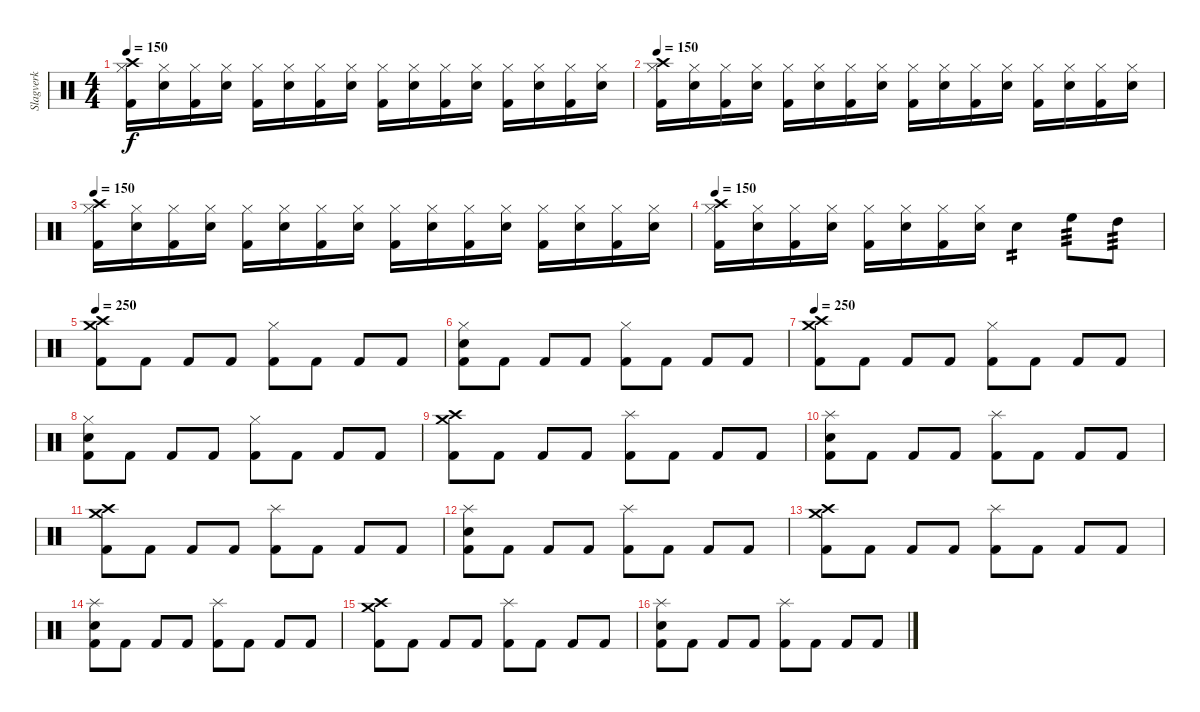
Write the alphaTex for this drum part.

\track ("Slagverk" "Slagverk") {instrument percussion}
\staff {score}
\articulation defaults
\ts (4 4)
\tempo 135
\tempo 150
\clef neutral
\ks c
("Crash high (hit)" "Hi-Hat (closed)" "Kick (hit) 2").16{dy f} ("Electric Snare (hit)" "Hi-Hat (closed)").16 ("Hi-Hat (closed)" "Kick (hit) 2").16 ("Electric Snare (hit)" "Hi-Hat (closed)").16 ("Hi-Hat (closed)" "Kick (hit) 2").16 ("Electric Snare (hit)" "Hi-Hat (closed)").16 ("Hi-Hat (closed)" "Kick (hit) 2").16 ("Electric Snare (hit)" "Hi-Hat (closed)").16 ("Hi-Hat (closed)" "Kick (hit) 2").16 ("Electric Snare (hit)" "Hi-Hat (closed)").16 ("Hi-Hat (closed)" "Kick (hit) 2").16 ("Electric Snare (hit)" "Hi-Hat (closed)").16 ("Hi-Hat (closed)" "Kick (hit) 2").16 ("Electric Snare (hit)" "Hi-Hat (closed)").16 ("Hi-Hat (closed)" "Kick (hit) 2").16 ("Electric Snare (hit)" "Hi-Hat (closed)").16 |
\tempo 135
\tempo 150
("Crash high (hit)" "Hi-Hat (closed)" "Kick (hit) 2").16 ("Electric Snare (hit)" "Hi-Hat (closed)").16 ("Hi-Hat (closed)" "Kick (hit) 2").16 ("Electric Snare (hit)" "Hi-Hat (closed)").16 ("Hi-Hat (closed)" "Kick (hit) 2").16 ("Electric Snare (hit)" "Hi-Hat (closed)").16 ("Hi-Hat (closed)" "Kick (hit) 2").16 ("Electric Snare (hit)" "Hi-Hat (closed)").16 ("Hi-Hat (closed)" "Kick (hit) 2").16 ("Electric Snare (hit)" "Hi-Hat (closed)").16 ("Hi-Hat (closed)" "Kick (hit) 2").16 ("Electric Snare (hit)" "Hi-Hat (closed)").16 ("Hi-Hat (closed)" "Kick (hit) 2").16 ("Electric Snare (hit)" "Hi-Hat (closed)").16 ("Hi-Hat (closed)" "Kick (hit) 2").16 ("Electric Snare (hit)" "Hi-Hat (closed)").16 |
\tempo 135
\tempo 150
("Crash high (hit)" "Hi-Hat (closed)" "Kick (hit) 2").16 ("Electric Snare (hit)" "Hi-Hat (closed)").16 ("Hi-Hat (closed)" "Kick (hit) 2").16 ("Electric Snare (hit)" "Hi-Hat (closed)").16 ("Hi-Hat (closed)" "Kick (hit) 2").16 ("Electric Snare (hit)" "Hi-Hat (closed)").16 ("Hi-Hat (closed)" "Kick (hit) 2").16 ("Electric Snare (hit)" "Hi-Hat (closed)").16 ("Hi-Hat (closed)" "Kick (hit) 2").16 ("Electric Snare (hit)" "Hi-Hat (closed)").16 ("Hi-Hat (closed)" "Kick (hit) 2").16 ("Electric Snare (hit)" "Hi-Hat (closed)").16 ("Hi-Hat (closed)" "Kick (hit) 2").16 ("Electric Snare (hit)" "Hi-Hat (closed)").16 ("Hi-Hat (closed)" "Kick (hit) 2").16 ("Electric Snare (hit)" "Hi-Hat (closed)").16 |
\tempo 135
\tempo 150
("Crash high (hit)" "Hi-Hat (closed)" "Kick (hit) 2").16 ("Electric Snare (hit)" "Hi-Hat (closed)").16 ("Hi-Hat (closed)" "Kick (hit) 2").16 ("Electric Snare (hit)" "Hi-Hat (closed)").16 ("Hi-Hat (closed)" "Kick (hit) 2").16 ("Electric Snare (hit)" "Hi-Hat (closed)").16 ("Hi-Hat (closed)" "Kick (hit) 2").16 ("Electric Snare (hit)" "Hi-Hat (closed)").16 "Electric Snare (hit)".4{tp 2} "High Floor Tom (hit)".8{tp 3} "High Tom (hit)".8{tp 3} |
\tempo 250
("Crash medium (hit)" "Crash high (hit)" "Kick (hit) 2").8 "Kick (hit) 2".8 "Kick (hit) 2".8 "Kick (hit) 2".8 ("Hi-Hat (closed)" "Kick (hit) 2").8 "Kick (hit) 2".8 "Kick (hit) 2".8 "Kick (hit) 2".8 |
("Electric Snare (hit)" "Hi-Hat (closed)" "Kick (hit) 2").8 "Kick (hit) 2".8 "Kick (hit) 2".8 "Kick (hit) 2".8 ("Hi-Hat (closed)" "Kick (hit) 2").8 "Kick (hit) 2".8 "Kick (hit) 2".8 "Kick (hit) 2".8 |
\tempo 250
("Crash medium (hit)" "Crash high (hit)" "Kick (hit) 2").8 "Kick (hit) 2".8 "Kick (hit) 2".8 "Kick (hit) 2".8 ("Hi-Hat (closed)" "Kick (hit) 2").8 "Kick (hit) 2".8 "Kick (hit) 2".8 "Kick (hit) 2".8 |
("Electric Snare (hit)" "Hi-Hat (closed)" "Kick (hit) 2").8 "Kick (hit) 2".8 "Kick (hit) 2".8 "Kick (hit) 2".8 ("Hi-Hat (closed)" "Kick (hit) 2").8 "Kick (hit) 2".8 "Kick (hit) 2".8 "Kick (hit) 2".8 |
("Crash medium (hit)" "Crash high (hit)" "Kick (hit) 2").8 "Kick (hit) 2".8 "Kick (hit) 2".8 "Kick (hit) 2".8 ("Splash (hit)" "Kick (hit) 2").8 "Kick (hit) 2".8 "Kick (hit) 2".8 "Kick (hit) 2".8 |
("Electric Snare (hit)" "Splash (hit)" "Kick (hit) 2").8 "Kick (hit) 2".8 "Kick (hit) 2".8 "Kick (hit) 2".8 ("Splash (hit)" "Kick (hit) 2").8 "Kick (hit) 2".8 "Kick (hit) 2".8 "Kick (hit) 2".8 |
("Crash medium (hit)" "Crash high (hit)" "Kick (hit) 2").8 "Kick (hit) 2".8 "Kick (hit) 2".8 "Kick (hit) 2".8 ("Splash (hit)" "Kick (hit) 2").8 "Kick (hit) 2".8 "Kick (hit) 2".8 "Kick (hit) 2".8 |
("Electric Snare (hit)" "Splash (hit)" "Kick (hit) 2").8 "Kick (hit) 2".8 "Kick (hit) 2".8 "Kick (hit) 2".8 ("Splash (hit)" "Kick (hit) 2").8 "Kick (hit) 2".8 "Kick (hit) 2".8 "Kick (hit) 2".8 |
("Crash medium (hit)" "Crash high (hit)" "Kick (hit) 2").8 "Kick (hit) 2".8 "Kick (hit) 2".8 "Kick (hit) 2".8 ("Splash (hit)" "Kick (hit) 2").8 "Kick (hit) 2".8 "Kick (hit) 2".8 "Kick (hit) 2".8 |
("Electric Snare (hit)" "Splash (hit)" "Kick (hit) 2").8 "Kick (hit) 2".8 "Kick (hit) 2".8 "Kick (hit) 2".8 ("Splash (hit)" "Kick (hit) 2").8 "Kick (hit) 2".8 "Kick (hit) 2".8 "Kick (hit) 2".8 |
("Crash medium (hit)" "Crash high (hit)" "Kick (hit) 2").8 "Kick (hit) 2".8 "Kick (hit) 2".8 "Kick (hit) 2".8 ("Splash (hit)" "Kick (hit) 2").8 "Kick (hit) 2".8 "Kick (hit) 2".8 "Kick (hit) 2".8 |
("Electric Snare (hit)" "Splash (hit)" "Kick (hit) 2").8 "Kick (hit) 2".8 "Kick (hit) 2".8 "Kick (hit) 2".8 ("Splash (hit)" "Kick (hit) 2").8 "Kick (hit) 2".8 "Kick (hit) 2".8 "Kick (hit) 2".8
